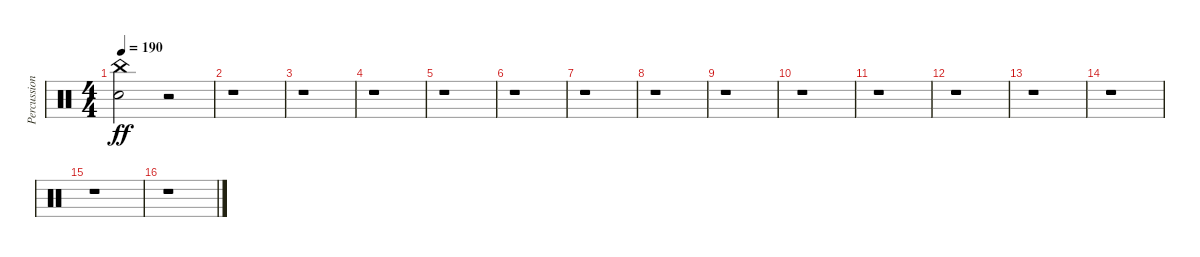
\track ("Percussion" "Percussion") {instrument percussion}
\staff {score}
\articulation defaults
\ts (4 4)
\tempo 190
\clef neutral
\ks c
("China (hit)" "Snare (hit) 2").2{dy ff} r.2 |
r.1 |
r.1 |
r.1 |
r.1 |
r.1 |
r.1 |
r.1 |
r.1 |
r.1 |
r.1 |
r.1 |
r.1 |
r.1 |
r.1 |
r.1
